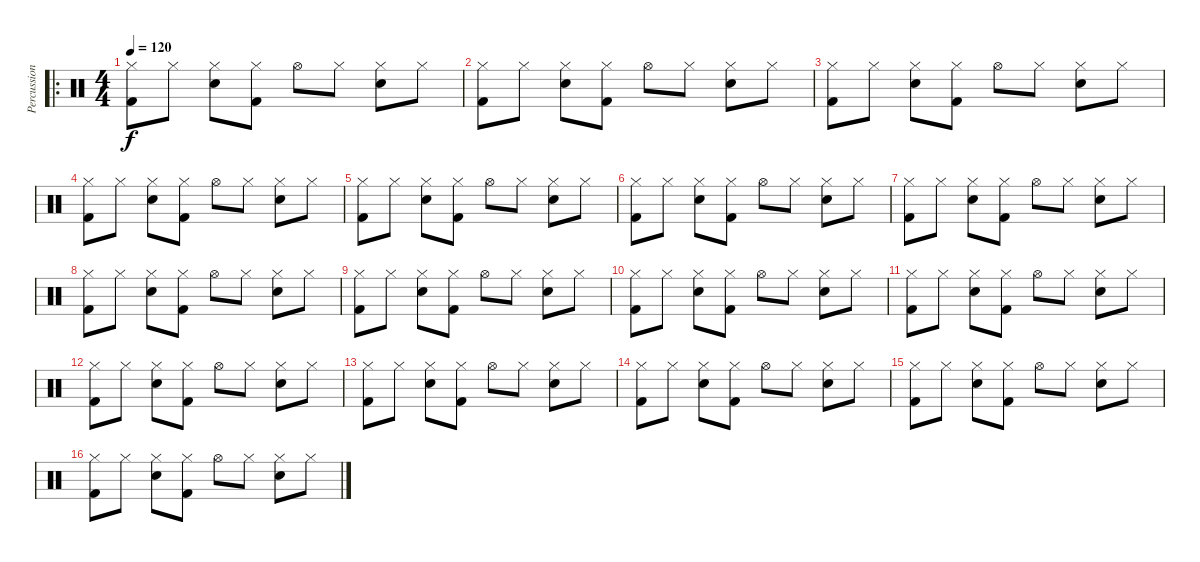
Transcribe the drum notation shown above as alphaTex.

\track ("Percussion" "Percussion") {instrument percussion}
\staff {score}
\articulation defaults
\ro
\ts (4 4)
\tempo 120
\clef neutral
\ks c
("Hi-Hat (closed)" "Kick (hit) 2").8{dy f} "Hi-Hat (closed)".8 ("Hi-Hat (closed)" "Snare (hit) 2").8 ("Hi-Hat (closed)" "Kick (hit) 2").8 "Hi-Hat (open)".8 "Hi-Hat (closed)".8 ("Hi-Hat (closed)" "Snare (hit) 2").8 "Hi-Hat (closed)".8 |
("Hi-Hat (closed)" "Kick (hit) 2").8 "Hi-Hat (closed)".8 ("Hi-Hat (closed)" "Snare (hit) 2").8 ("Hi-Hat (closed)" "Kick (hit) 2").8 "Hi-Hat (open)".8 "Hi-Hat (closed)".8 ("Hi-Hat (closed)" "Snare (hit) 2").8 "Hi-Hat (closed)".8 |
("Hi-Hat (closed)" "Kick (hit) 2").8 "Hi-Hat (closed)".8 ("Hi-Hat (closed)" "Snare (hit) 2").8 ("Hi-Hat (closed)" "Kick (hit) 2").8 "Hi-Hat (open)".8 "Hi-Hat (closed)".8 ("Hi-Hat (closed)" "Snare (hit) 2").8 "Hi-Hat (closed)".8 |
("Hi-Hat (closed)" "Kick (hit) 2").8 "Hi-Hat (closed)".8 ("Hi-Hat (closed)" "Snare (hit) 2").8 ("Hi-Hat (closed)" "Kick (hit) 2").8 "Hi-Hat (open)".8 "Hi-Hat (closed)".8 ("Hi-Hat (closed)" "Snare (hit) 2").8 "Hi-Hat (closed)".8 |
("Hi-Hat (closed)" "Kick (hit) 2").8 "Hi-Hat (closed)".8 ("Hi-Hat (closed)" "Snare (hit) 2").8 ("Hi-Hat (closed)" "Kick (hit) 2").8 "Hi-Hat (open)".8 "Hi-Hat (closed)".8 ("Hi-Hat (closed)" "Snare (hit) 2").8 "Hi-Hat (closed)".8 |
("Hi-Hat (closed)" "Kick (hit) 2").8 "Hi-Hat (closed)".8 ("Hi-Hat (closed)" "Snare (hit) 2").8 ("Hi-Hat (closed)" "Kick (hit) 2").8 "Hi-Hat (open)".8 "Hi-Hat (closed)".8 ("Hi-Hat (closed)" "Snare (hit) 2").8 "Hi-Hat (closed)".8 |
("Hi-Hat (closed)" "Kick (hit) 2").8 "Hi-Hat (closed)".8 ("Hi-Hat (closed)" "Snare (hit) 2").8 ("Hi-Hat (closed)" "Kick (hit) 2").8 "Hi-Hat (open)".8 "Hi-Hat (closed)".8 ("Hi-Hat (closed)" "Snare (hit) 2").8 "Hi-Hat (closed)".8 |
("Hi-Hat (closed)" "Kick (hit) 2").8 "Hi-Hat (closed)".8 ("Hi-Hat (closed)" "Snare (hit) 2").8 ("Hi-Hat (closed)" "Kick (hit) 2").8 "Hi-Hat (open)".8 "Hi-Hat (closed)".8 ("Hi-Hat (closed)" "Snare (hit) 2").8 "Hi-Hat (closed)".8 |
("Hi-Hat (closed)" "Kick (hit) 2").8 "Hi-Hat (closed)".8 ("Hi-Hat (closed)" "Snare (hit) 2").8 ("Hi-Hat (closed)" "Kick (hit) 2").8 "Hi-Hat (open)".8 "Hi-Hat (closed)".8 ("Hi-Hat (closed)" "Snare (hit) 2").8 "Hi-Hat (closed)".8 |
("Hi-Hat (closed)" "Kick (hit) 2").8 "Hi-Hat (closed)".8 ("Hi-Hat (closed)" "Snare (hit) 2").8 ("Hi-Hat (closed)" "Kick (hit) 2").8 "Hi-Hat (open)".8 "Hi-Hat (closed)".8 ("Hi-Hat (closed)" "Snare (hit) 2").8 "Hi-Hat (closed)".8 |
("Hi-Hat (closed)" "Kick (hit) 2").8 "Hi-Hat (closed)".8 ("Hi-Hat (closed)" "Snare (hit) 2").8 ("Hi-Hat (closed)" "Kick (hit) 2").8 "Hi-Hat (open)".8 "Hi-Hat (closed)".8 ("Hi-Hat (closed)" "Snare (hit) 2").8 "Hi-Hat (closed)".8 |
("Hi-Hat (closed)" "Kick (hit) 2").8 "Hi-Hat (closed)".8 ("Hi-Hat (closed)" "Snare (hit) 2").8 ("Hi-Hat (closed)" "Kick (hit) 2").8 "Hi-Hat (open)".8 "Hi-Hat (closed)".8 ("Hi-Hat (closed)" "Snare (hit) 2").8 "Hi-Hat (closed)".8 |
("Hi-Hat (closed)" "Kick (hit) 2").8 "Hi-Hat (closed)".8 ("Hi-Hat (closed)" "Snare (hit) 2").8 ("Hi-Hat (closed)" "Kick (hit) 2").8 "Hi-Hat (open)".8 "Hi-Hat (closed)".8 ("Hi-Hat (closed)" "Snare (hit) 2").8 "Hi-Hat (closed)".8 |
("Hi-Hat (closed)" "Kick (hit) 2").8 "Hi-Hat (closed)".8 ("Hi-Hat (closed)" "Snare (hit) 2").8 ("Hi-Hat (closed)" "Kick (hit) 2").8 "Hi-Hat (open)".8 "Hi-Hat (closed)".8 ("Hi-Hat (closed)" "Snare (hit) 2").8 "Hi-Hat (closed)".8 |
("Hi-Hat (closed)" "Kick (hit) 2").8 "Hi-Hat (closed)".8 ("Hi-Hat (closed)" "Snare (hit) 2").8 ("Hi-Hat (closed)" "Kick (hit) 2").8 "Hi-Hat (open)".8 "Hi-Hat (closed)".8 ("Hi-Hat (closed)" "Snare (hit) 2").8 "Hi-Hat (closed)".8 |
("Hi-Hat (closed)" "Kick (hit) 2").8 "Hi-Hat (closed)".8 ("Hi-Hat (closed)" "Snare (hit) 2").8 ("Hi-Hat (closed)" "Kick (hit) 2").8 "Hi-Hat (open)".8 "Hi-Hat (closed)".8 ("Hi-Hat (closed)" "Snare (hit) 2").8 "Hi-Hat (closed)".8
